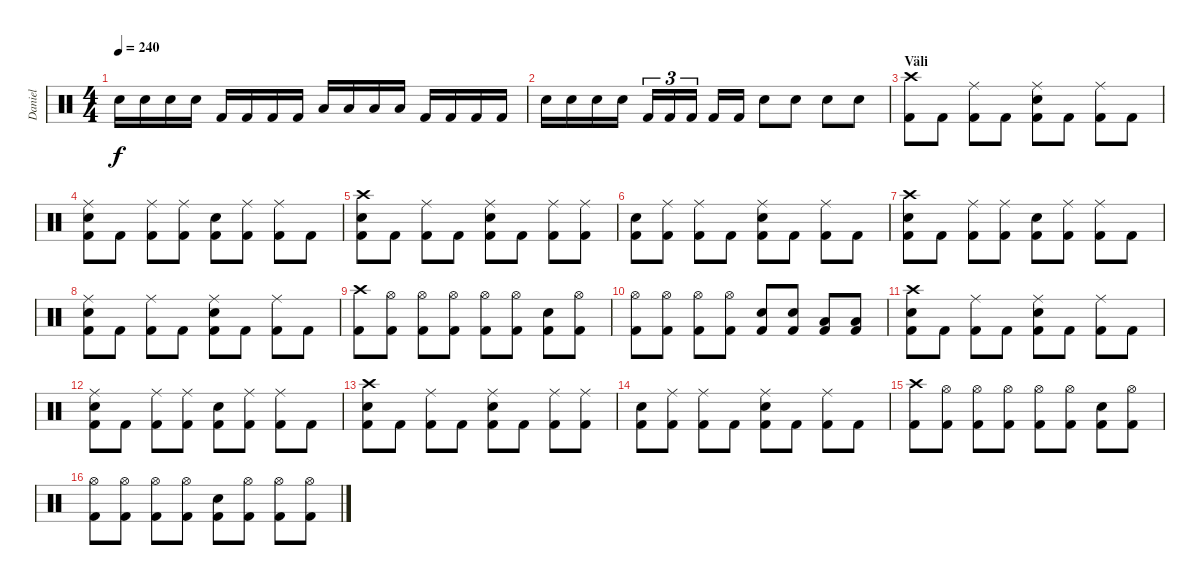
\track ("Daniel" "Daniel") {instrument percussion}
\staff {score}
\articulation defaults
\ts (4 4)
\tempo 240
\clef neutral
\ks c "Electric Snare (hit)".16{dy f} "Electric Snare (hit)".16 "Electric Snare (hit)".16 "Electric Snare (hit)".16 "Kick (hit) 2".16 "Kick (hit) 2".16 "Kick (hit) 2".16 "Kick (hit) 2".16 "Low Tom (hit)".16 "Low Tom (hit)".16 "Low Tom (hit)".16 "Low Tom (hit)".16 "Kick (hit) 2".16 "Kick (hit) 2".16 "Kick (hit) 2".16 "Kick (hit) 2".16
|
"Electric Snare (hit)".16 "Electric Snare (hit)".16 "Electric Snare (hit)".16 "Electric Snare (hit)".16 "Kick (hit) 2".16{tu (3 2)} "Kick (hit) 2".16{tu (3 2)} "Kick (hit) 2".16{tu (3 2)} "Kick (hit) 2".16 "Kick (hit) 2".16 "Electric Snare (hit)".8 "Electric Snare (hit)".8 "Electric Snare (hit)".8 "Electric Snare (hit)".8 |
\section ("" "Väli")
("Crash high (hit)" "Kick (hit) 2").8 "Kick (hit) 2".8 ("Ride (middle)" "Kick (hit) 2").8 "Kick (hit) 2".8 ("Ride (middle)" "Electric Snare (hit)" "Kick (hit) 2").8 "Kick (hit) 2".8 ("Ride (middle)" "Kick (hit) 2").8 "Kick (hit) 2".8 |
("Ride (middle)" "Electric Snare (hit)" "Kick (hit) 2").8 "Kick (hit) 2".8 ("Ride (middle)" "Kick (hit) 2").8 ("Ride (middle)" "Kick (hit) 2").8 ("Electric Snare (hit)" "Kick (hit) 2").8 ("Ride (middle)" "Kick (hit) 2").8 ("Ride (middle)" "Kick (hit) 2").8 "Kick (hit) 2".8 |
("Crash high (hit)" "Electric Snare (hit)" "Kick (hit) 2").8 "Kick (hit) 2".8 ("Ride (middle)" "Kick (hit) 2").8 "Kick (hit) 2".8 ("Ride (middle)" "Electric Snare (hit)" "Kick (hit) 2").8 "Kick (hit) 2".8 ("Ride (middle)" "Kick (hit) 2").8 ("Ride (middle)" "Kick (hit) 2").8 |
("Electric Snare (hit)" "Kick (hit) 2").8 ("Ride (middle)" "Kick (hit) 2").8 ("Ride (middle)" "Kick (hit) 2").8 "Kick (hit) 2".8 ("Ride (middle)" "Electric Snare (hit)" "Kick (hit) 2").8 "Kick (hit) 2".8 ("Ride (middle)" "Kick (hit) 2").8 "Kick (hit) 2".8 |
("Crash high (hit)" "Electric Snare (hit)" "Kick (hit) 2").8 "Kick (hit) 2".8 ("Ride (middle)" "Kick (hit) 2").8 ("Ride (middle)" "Kick (hit) 2").8 ("Electric Snare (hit)" "Kick (hit) 2").8 ("Ride (middle)" "Kick (hit) 2").8 ("Ride (middle)" "Kick (hit) 2").8 "Kick (hit) 2".8 |
("Ride (middle)" "Electric Snare (hit)" "Kick (hit) 2").8 "Kick (hit) 2".8 ("Ride (middle)" "Kick (hit) 2").8 "Kick (hit) 2".8 ("Ride (middle)" "Electric Snare (hit)" "Kick (hit) 2").8 "Kick (hit) 2".8 ("Ride (middle)" "Kick (hit) 2").8 "Kick (hit) 2".8 |
("Crash high (hit)" "Kick (hit) 2").8 ("Hi-Hat (open)" "Kick (hit) 2").8 ("Hi-Hat (open)" "Kick (hit) 2").8 ("Hi-Hat (open)" "Kick (hit) 2").8 ("Hi-Hat (open)" "Kick (hit) 2").8 ("Hi-Hat (open)" "Kick (hit) 2").8 ("Electric Snare (hit)" "Kick (hit) 2").8 ("Hi-Hat (open)" "Kick (hit) 2").8 |
("Hi-Hat (open)" "Kick (hit) 2").8 ("Hi-Hat (open)" "Kick (hit) 2").8 ("Hi-Hat (open)" "Kick (hit) 2").8 ("Hi-Hat (open)" "Kick (hit) 2").8 ("Electric Snare (hit)" "Kick (hit) 2").8 ("Electric Snare (hit)" "Kick (hit) 2").8 ("Low Tom (hit)" "Kick (hit) 2").8 ("Low Tom (hit)" "Kick (hit) 2").8 |
("Crash high (hit)" "Electric Snare (hit)" "Kick (hit) 2").8 "Kick (hit) 2".8 ("Ride (middle)" "Kick (hit) 2").8 "Kick (hit) 2".8 ("Ride (middle)" "Electric Snare (hit)" "Kick (hit) 2").8 "Kick (hit) 2".8 ("Ride (middle)" "Kick (hit) 2").8 "Kick (hit) 2".8 |
("Ride (middle)" "Electric Snare (hit)" "Kick (hit) 2").8 "Kick (hit) 2".8 ("Ride (middle)" "Kick (hit) 2").8 ("Ride (middle)" "Kick (hit) 2").8 ("Electric Snare (hit)" "Kick (hit) 2").8 ("Ride (middle)" "Kick (hit) 2").8 ("Ride (middle)" "Kick (hit) 2").8 "Kick (hit) 2".8 |
("Crash high (hit)" "Electric Snare (hit)" "Kick (hit) 2").8 "Kick (hit) 2".8 ("Ride (middle)" "Kick (hit) 2").8 "Kick (hit) 2".8 ("Ride (middle)" "Electric Snare (hit)" "Kick (hit) 2").8 "Kick (hit) 2".8 ("Ride (middle)" "Kick (hit) 2").8 ("Ride (middle)" "Kick (hit) 2").8 |
("Electric Snare (hit)" "Kick (hit) 2").8 ("Ride (middle)" "Kick (hit) 2").8 ("Ride (middle)" "Kick (hit) 2").8 "Kick (hit) 2".8 ("Ride (middle)" "Electric Snare (hit)" "Kick (hit) 2").8 "Kick (hit) 2".8 ("Ride (middle)" "Kick (hit) 2").8 "Kick (hit) 2".8 |
("Crash high (hit)" "Kick (hit) 2").8 ("Hi-Hat (open)" "Kick (hit) 2").8 ("Hi-Hat (open)" "Kick (hit) 2").8 ("Hi-Hat (open)" "Kick (hit) 2").8 ("Hi-Hat (open)" "Kick (hit) 2").8 ("Hi-Hat (open)" "Kick (hit) 2").8 ("Electric Snare (hit)" "Kick (hit) 2").8 ("Hi-Hat (open)" "Kick (hit) 2").8 |
("Hi-Hat (open)" "Kick (hit) 2").8 ("Hi-Hat (open)" "Kick (hit) 2").8 ("Hi-Hat (open)" "Kick (hit) 2").8 ("Hi-Hat (open)" "Kick (hit) 2").8 ("Electric Snare (hit)" "Kick (hit) 2").8 ("Hi-Hat (open)" "Kick (hit) 2").8 ("Hi-Hat (open)" "Kick (hit) 2").8 ("Hi-Hat (open)" "Kick (hit) 2").8
